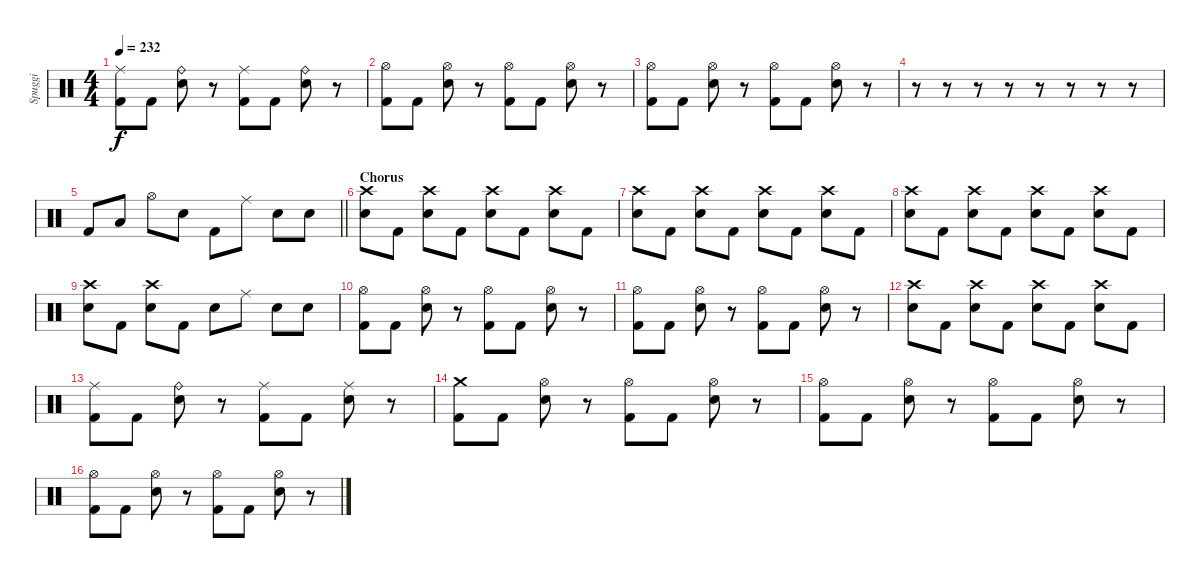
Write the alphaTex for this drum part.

\track ("Spuggi" "Spuggi") {instrument percussion}
\staff {score}
\articulation defaults
\ts (4 4)
\tempo 232
\clef neutral
\ks c
("Ride (middle)" "Kick (hit) 2").8{dy f} "Kick (hit) 2".8 ("Ride (bell)" "Snare (hit) 2").8 r.8 ("Ride (middle)" "Kick (hit) 2").8 "Kick (hit) 2".8 ("Ride (bell)" "Snare (hit) 2").8 r.8 |
("Hi-Hat (open)" "Kick (hit) 2").8 "Kick (hit) 2".8 ("Hi-Hat (open)" "Snare (hit) 2").8 r.8 ("Hi-Hat (open)" "Kick (hit) 2").8 "Kick (hit) 2".8 ("Hi-Hat (open)" "Snare (hit) 2").8 r.8 |
("Hi-Hat (open)" "Kick (hit) 2").8 "Kick (hit) 2".8 ("Hi-Hat (open)" "Snare (hit) 2").8 r.8 ("Hi-Hat (open)" "Kick (hit) 2").8 "Kick (hit) 2".8 ("Hi-Hat (open)" "Snare (hit) 2").8 r.8 |
r.8 r.8 r.8 r.8 r.8 r.8 r.8 r.8 |
\barLineRight lightlight "Kick (hit) 2".8 "Low Tom (hit)".8 "Hi-Hat (open)".8 "Snare (hit) 2".8 "Kick (hit) 2".8 "Ride (middle)".8 "Snare (hit) 2".8 "Snare (hit) 2".8
|
\section ("" "Chorus")
("Crash high (hit)" "Snare (hit) 2").8 "Kick (hit) 2".8 ("Crash high (hit)" "Snare (hit) 2").8 "Kick (hit) 2".8 ("Crash high (hit)" "Snare (hit) 2").8 "Kick (hit) 2".8 ("Crash high (hit)" "Snare (hit) 2").8 "Kick (hit) 2".8 |
("Crash high (hit)" "Snare (hit) 2").8 "Kick (hit) 2".8 ("Crash high (hit)" "Snare (hit) 2").8 "Kick (hit) 2".8 ("Crash high (hit)" "Snare (hit) 2").8 "Kick (hit) 2".8 ("Crash high (hit)" "Snare (hit) 2").8 "Kick (hit) 2".8 |
("Crash high (hit)" "Snare (hit) 2").8 "Kick (hit) 2".8 ("Crash high (hit)" "Snare (hit) 2").8 "Kick (hit) 2".8 ("Crash high (hit)" "Snare (hit) 2").8 "Kick (hit) 2".8 ("Crash high (hit)" "Snare (hit) 2").8 "Kick (hit) 2".8 |
("Crash high (hit)" "Snare (hit) 2").8 "Kick (hit) 2".8 ("Crash high (hit)" "Snare (hit) 2").8 "Kick (hit) 2".8 "Snare (hit) 2".8 "Ride (middle)".8 "Snare (hit) 2".8 "Snare (hit) 2".8 |
("Hi-Hat (open)" "Kick (hit) 2").8 "Kick (hit) 2".8 ("Hi-Hat (open)" "Snare (hit) 2").8 r.8 ("Hi-Hat (open)" "Kick (hit) 2").8 "Kick (hit) 2".8 ("Hi-Hat (open)" "Snare (hit) 2").8 r.8 |
("Hi-Hat (open)" "Kick (hit) 2").8 "Kick (hit) 2".8 ("Hi-Hat (open)" "Snare (hit) 2").8 r.8 ("Hi-Hat (open)" "Kick (hit) 2").8 "Kick (hit) 2".8 ("Hi-Hat (open)" "Snare (hit) 2").8 r.8 |
("Crash high (hit)" "Snare (hit) 2").8 "Kick (hit) 2".8 ("Crash high (hit)" "Snare (hit) 2").8 "Kick (hit) 2".8 ("Crash high (hit)" "Snare (hit) 2").8 "Kick (hit) 2".8 ("Crash high (hit)" "Snare (hit) 2").8 "Kick (hit) 2".8 |
("Ride (middle)" "Kick (hit) 2").8 "Kick (hit) 2".8 ("Ride (bell)" "Snare (hit) 2").8 r.8 ("Ride (middle)" "Kick (hit) 2").8 "Kick (hit) 2".8 ("Ride (middle)" "Snare (hit) 2").8 r.8 |
("Crash medium (hit)" "Kick (hit) 2").8 "Kick (hit) 2".8 ("Hi-Hat (open)" "Snare (hit) 2").8 r.8 ("Hi-Hat (open)" "Kick (hit) 2").8 "Kick (hit) 2".8 ("Hi-Hat (open)" "Snare (hit) 2").8 r.8 |
("Hi-Hat (open)" "Kick (hit) 2").8 "Kick (hit) 2".8 ("Hi-Hat (open)" "Snare (hit) 2").8 r.8 ("Hi-Hat (open)" "Kick (hit) 2").8 "Kick (hit) 2".8 ("Hi-Hat (open)" "Snare (hit) 2").8 r.8 |
("Hi-Hat (open)" "Kick (hit) 2").8 "Kick (hit) 2".8 ("Hi-Hat (open)" "Snare (hit) 2").8 r.8 ("Hi-Hat (open)" "Kick (hit) 2").8 "Kick (hit) 2".8 ("Hi-Hat (open)" "Snare (hit) 2").8 r.8
